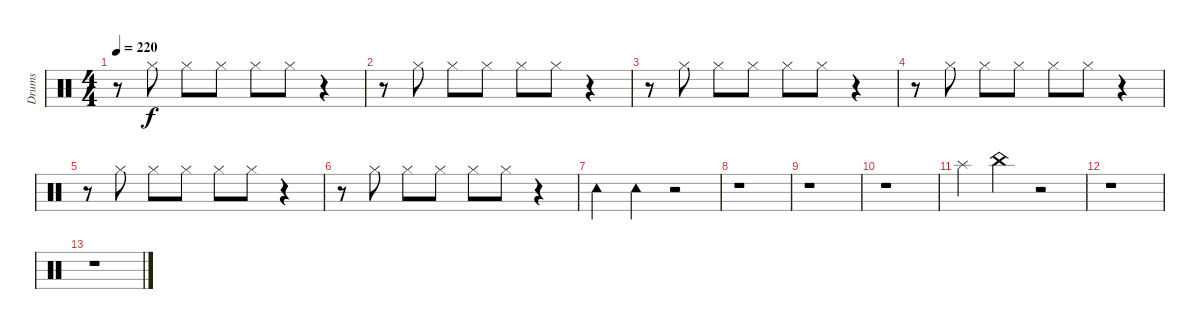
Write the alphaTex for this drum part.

\track ("Drums" "Drums") {instrument percussion}
\staff {score}
\articulation defaults
\ts (4 4)
\tempo 220
\clef neutral
\ks c
r.8{dy f} "Hi-Hat (closed)".8 "Hi-Hat (closed)".8 "Hi-Hat (closed)".8 "Hi-Hat (closed)".8 "Hi-Hat (closed)".8 r.4 |
r.8 "Hi-Hat (closed)".8 "Hi-Hat (closed)".8 "Hi-Hat (closed)".8 "Hi-Hat (closed)".8 "Hi-Hat (closed)".8 r.4 |
r.8 "Hi-Hat (closed)".8 "Hi-Hat (closed)".8 "Hi-Hat (closed)".8 "Hi-Hat (closed)".8 "Hi-Hat (closed)".8 r.4 |
r.8 "Hi-Hat (closed)".8 "Hi-Hat (closed)".8 "Hi-Hat (closed)".8 "Hi-Hat (closed)".8 "Hi-Hat (closed)".8 r.4 |
r.8 "Hi-Hat (closed)".8 "Hi-Hat (closed)".8 "Hi-Hat (closed)".8 "Hi-Hat (closed)".8 "Hi-Hat (closed)".8 r.4 |
r.8 "Hi-Hat (closed)".8 "Hi-Hat (closed)".8 "Hi-Hat (closed)".8 "Hi-Hat (closed)".8 "Hi-Hat (closed)".8 r.4 |
"Tambourine (hit)".4 "Tambourine (hit)".4 r.2 |
r.1 |
r.1 |
r.1 |
"Splash (hit)".4 "China (hit)".4 r.2 |
r.1 |
r.1
